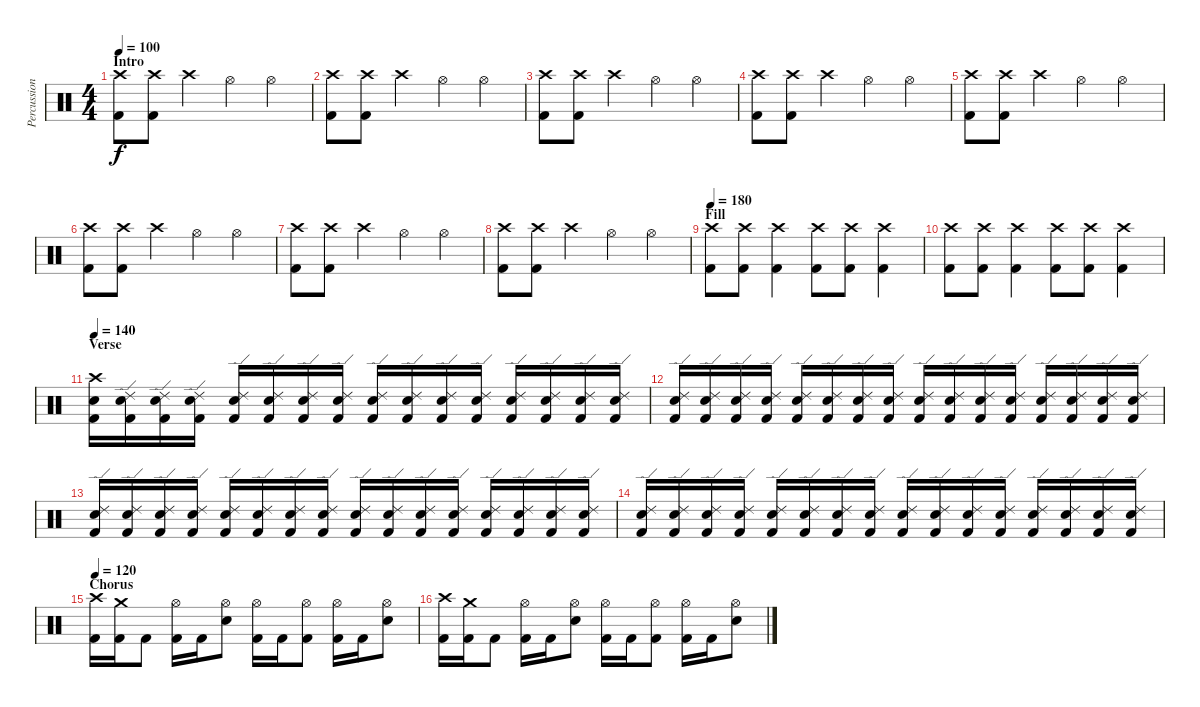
\track ("Percussion" "Percussion") {instrument percussion}
\staff {score}
\articulation defaults
\ts (4 4)
\section ("" "Intro")
\tempo 100
\clef neutral
\ks c
("Crash high (hit)" "Kick (hit) 2").8{dy f} ("Crash high (hit)" "Kick (hit) 2").8 "Crash high (hit)"{pm}.4 "Hi-Hat (open)".4 "Hi-Hat (open)".4 |
("Crash high (hit)" "Kick (hit) 2").8 ("Crash high (hit)" "Kick (hit) 2").8 "Crash high (hit)"{pm}.4 "Hi-Hat (open)".4 "Hi-Hat (open)".4 |
("Crash high (hit)" "Kick (hit) 2").8 ("Crash high (hit)" "Kick (hit) 2").8 "Crash high (hit)"{pm}.4 "Hi-Hat (open)".4 "Hi-Hat (open)".4 |
("Crash high (hit)"{pm} "Kick (hit) 2").8 ("Crash high (hit)"{pm} "Kick (hit) 2").8 "Crash high (hit)"{pm}.4 "Hi-Hat (open)".4 "Hi-Hat (open)".4 |
("Crash high (hit)"{pm} "Kick (hit) 2").8 ("Crash high (hit)"{pm} "Kick (hit) 2").8 "Crash high (hit)"{pm}.4 "Hi-Hat (open)".4 "Hi-Hat (open)".4 |
("Crash high (hit)" "Kick (hit) 2").8 ("Crash high (hit)" "Kick (hit) 2").8 "Crash high (hit)"{pm}.4 "Hi-Hat (open)".4 "Hi-Hat (open)".4 |
("Crash high (hit)" "Kick (hit) 2").8 ("Crash high (hit)" "Kick (hit) 2").8 "Crash high (hit)"{pm}.4 "Hi-Hat (open)".4 "Hi-Hat (open)".4 |
("Crash high (hit)" "Kick (hit) 2").8 ("Crash high (hit)" "Kick (hit) 2").8 "Crash high (hit)"{pm}.4 "Hi-Hat (open)".4 "Hi-Hat (open)".4 |
\section ("" "Fill")
\tempo 180
("Crash high (hit)" "Kick (hit) 2").8 ("Crash high (hit)" "Kick (hit) 2").8 ("Crash high (hit)" "Kick (hit) 2").4 ("Crash high (hit)" "Kick (hit) 2").8 ("Crash high (hit)" "Kick (hit) 2").8 ("Crash high (hit)" "Kick (hit) 2").4 |
("Crash high (hit)" "Kick (hit) 2").8 ("Crash high (hit)" "Kick (hit) 2").8 ("Crash high (hit)" "Kick (hit) 2").4 ("Crash high (hit)" "Kick (hit) 2").8 ("Crash high (hit)" "Kick (hit) 2").8 ("Crash high (hit)" "Kick (hit) 2").4 |
\section ("" "Verse")
\tempo 140
("Crash high (hit)" "Snare (hit) 2" "Kick (hit) 2").16 ("Ride (edge) 2" "Snare (hit) 2" "Kick (hit) 2").16 ("Ride (edge) 2" "Snare (hit) 2" "Kick (hit) 2").16 ("Ride (edge) 2" "Snare (hit) 2" "Kick (hit) 2").16 ("Ride (edge) 2" "Snare (hit) 2" "Kick (hit) 2").16 ("Ride (edge) 2" "Snare (hit) 2" "Kick (hit) 2").16 ("Ride (edge) 2" "Snare (hit) 2" "Kick (hit) 2").16 ("Ride (edge) 2" "Snare (hit) 2" "Kick (hit) 2").16 ("Ride (edge) 2" "Snare (hit) 2" "Kick (hit) 2").16 ("Ride (edge) 2" "Snare (hit) 2" "Kick (hit) 2").16 ("Ride (edge) 2" "Snare (hit) 2" "Kick (hit) 2").16 ("Ride (edge) 2" "Snare (hit) 2" "Kick (hit) 2").16 ("Ride (edge) 2" "Snare (hit) 2" "Kick (hit) 2").16 ("Ride (edge) 2" "Snare (hit) 2" "Kick (hit) 2").16 ("Ride (edge) 2" "Snare (hit) 2" "Kick (hit) 2").16 ("Ride (edge) 2" "Snare (hit) 2" "Kick (hit) 2").16 |
("Ride (edge) 2" "Snare (hit) 2" "Kick (hit) 2").16 ("Ride (edge) 2" "Snare (hit) 2" "Kick (hit) 2").16 ("Ride (edge) 2" "Snare (hit) 2" "Kick (hit) 2").16 ("Ride (edge) 2" "Snare (hit) 2" "Kick (hit) 2").16 ("Ride (edge) 2" "Snare (hit) 2" "Kick (hit) 2").16 ("Ride (edge) 2" "Snare (hit) 2" "Kick (hit) 2").16 ("Ride (edge) 2" "Snare (hit) 2" "Kick (hit) 2").16 ("Ride (edge) 2" "Snare (hit) 2" "Kick (hit) 2").16 ("Ride (edge) 2" "Snare (hit) 2" "Kick (hit) 2").16 ("Ride (edge) 2" "Snare (hit) 2" "Kick (hit) 2").16 ("Ride (edge) 2" "Snare (hit) 2" "Kick (hit) 2").16 ("Ride (edge) 2" "Snare (hit) 2" "Kick (hit) 2").16 ("Ride (edge) 2" "Snare (hit) 2" "Kick (hit) 2").16 ("Ride (edge) 2" "Snare (hit) 2" "Kick (hit) 2").16 ("Ride (edge) 2" "Snare (hit) 2" "Kick (hit) 2").16 ("Ride (edge) 2" "Snare (hit) 2" "Kick (hit) 2").16 |
("Ride (edge) 2" "Snare (hit) 2" "Kick (hit) 2").16 ("Ride (edge) 2" "Snare (hit) 2" "Kick (hit) 2").16 ("Ride (edge) 2" "Snare (hit) 2" "Kick (hit) 2").16 ("Ride (edge) 2" "Snare (hit) 2" "Kick (hit) 2").16 ("Ride (edge) 2" "Snare (hit) 2" "Kick (hit) 2").16 ("Ride (edge) 2" "Snare (hit) 2" "Kick (hit) 2").16 ("Ride (edge) 2" "Snare (hit) 2" "Kick (hit) 2").16 ("Ride (edge) 2" "Snare (hit) 2" "Kick (hit) 2").16 ("Ride (edge) 2" "Snare (hit) 2" "Kick (hit) 2").16 ("Ride (edge) 2" "Snare (hit) 2" "Kick (hit) 2").16 ("Ride (edge) 2" "Snare (hit) 2" "Kick (hit) 2").16 ("Ride (edge) 2" "Snare (hit) 2" "Kick (hit) 2").16 ("Ride (edge) 2" "Snare (hit) 2" "Kick (hit) 2").16 ("Ride (edge) 2" "Snare (hit) 2" "Kick (hit) 2").16 ("Ride (edge) 2" "Snare (hit) 2" "Kick (hit) 2").16 ("Ride (edge) 2" "Snare (hit) 2" "Kick (hit) 2").16 |
("Ride (edge) 2" "Snare (hit) 2" "Kick (hit) 2").16 ("Ride (edge) 2" "Snare (hit) 2" "Kick (hit) 2").16 ("Ride (edge) 2" "Snare (hit) 2" "Kick (hit) 2").16 ("Ride (edge) 2" "Snare (hit) 2" "Kick (hit) 2").16 ("Ride (edge) 2" "Snare (hit) 2" "Kick (hit) 2").16 ("Ride (edge) 2" "Snare (hit) 2" "Kick (hit) 2").16 ("Ride (edge) 2" "Snare (hit) 2" "Kick (hit) 2").16 ("Ride (edge) 2" "Snare (hit) 2" "Kick (hit) 2").16 ("Ride (edge) 2" "Snare (hit) 2" "Kick (hit) 2").16 ("Ride (edge) 2" "Snare (hit) 2" "Kick (hit) 2").16 ("Ride (edge) 2" "Snare (hit) 2" "Kick (hit) 2").16 ("Ride (edge) 2" "Snare (hit) 2" "Kick (hit) 2").16 ("Ride (edge) 2" "Snare (hit) 2" "Kick (hit) 2").16 ("Ride (edge) 2" "Snare (hit) 2" "Kick (hit) 2").16 ("Ride (edge) 2" "Snare (hit) 2" "Kick (hit) 2").16 ("Ride (edge) 2" "Snare (hit) 2" "Kick (hit) 2").16 |
\section ("" "Chorus")
\tempo 120
("Crash high (hit)" "Kick (hit) 2").16 ("Crash medium (hit)" "Kick (hit) 2").16 "Kick (hit) 2".8 ("Hi-Hat (open)" "Kick (hit) 2").16 "Kick (hit) 2".16 ("Hi-Hat (open)" "Electric Snare (hit)").8 ("Hi-Hat (open)" "Kick (hit) 2").16 "Kick (hit) 2".16 ("Hi-Hat (open)" "Kick (hit) 2").8 ("Hi-Hat (open)" "Kick (hit) 2").16 "Kick (hit) 2".16 ("Hi-Hat (open)" "Electric Snare (hit)").8 |
("Crash high (hit)" "Kick (hit) 2").16 ("Crash medium (hit)" "Kick (hit) 2").16 "Kick (hit) 2".8 ("Hi-Hat (open)" "Kick (hit) 2").16 "Kick (hit) 2".16 ("Hi-Hat (open)" "Electric Snare (hit)").8 ("Hi-Hat (open)" "Kick (hit) 2").16 "Kick (hit) 2".16 ("Hi-Hat (open)" "Kick (hit) 2").8 ("Hi-Hat (open)" "Kick (hit) 2").16 "Kick (hit) 2".16 ("Hi-Hat (open)" "Electric Snare (hit)").8
